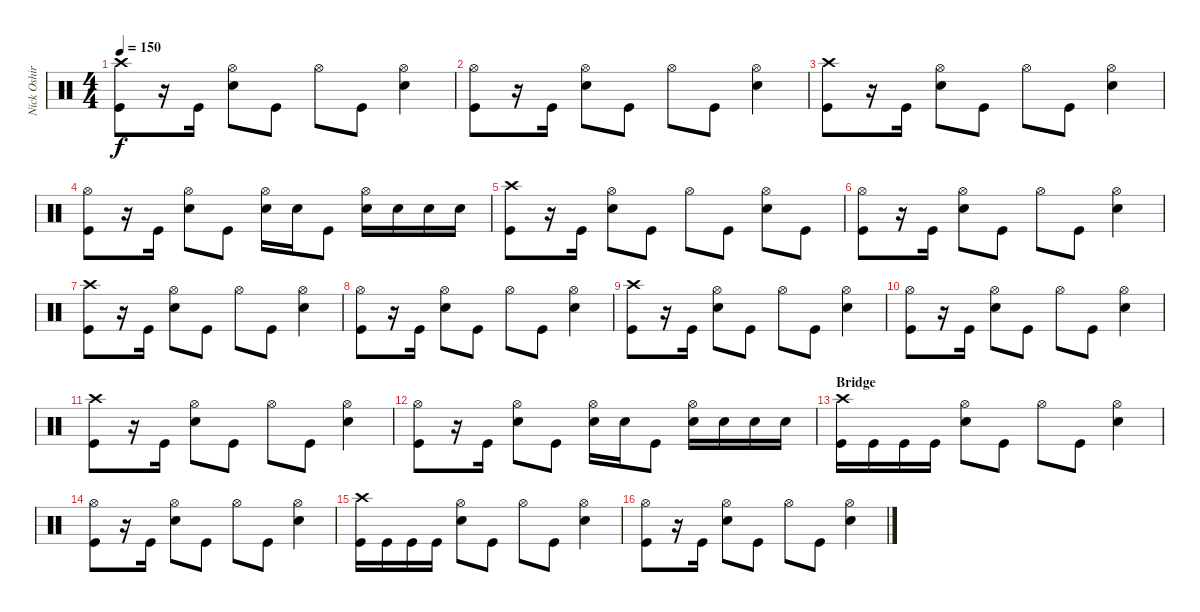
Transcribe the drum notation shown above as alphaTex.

\track ("Nick Oshiro" "Nick Oshir") {instrument percussion}
\staff {score}
\articulation defaults
\ts (4 4)
\tempo 150
\clef neutral
\ks c
("Crash high (hit)" "Kick (hit)").8{dy f} r.16 "Kick (hit)".16 ("Hi-Hat (open)" "Snare (hit) 2").8 "Kick (hit)".8 "Hi-Hat (open)".8 "Kick (hit)".8 ("Hi-Hat (open)" "Snare (hit) 2").4 |
("Hi-Hat (open)" "Kick (hit)").8 r.16 "Kick (hit)".16 ("Hi-Hat (open)" "Snare (hit) 2").8 "Kick (hit)".8 "Hi-Hat (open)".8 "Kick (hit)".8 ("Hi-Hat (open)" "Snare (hit) 2").4 |
("Crash high (hit)" "Kick (hit)").8 r.16 "Kick (hit)".16 ("Hi-Hat (open)" "Snare (hit) 2").8 "Kick (hit)".8 "Hi-Hat (open)".8 "Kick (hit)".8 ("Hi-Hat (open)" "Snare (hit) 2").4 |
("Hi-Hat (open)" "Kick (hit)").8 r.16 "Kick (hit)".16 ("Hi-Hat (open)" "Snare (hit) 2").8 "Kick (hit)".8 ("Hi-Hat (open)" "Snare (hit) 2").16 "Snare (hit) 2".16 "Kick (hit)".8 ("Hi-Hat (open)" "Snare (hit) 2").16 "Snare (hit) 2".16 "Snare (hit) 2".16 "Snare (hit) 2".16 |
("Crash high (hit)" "Kick (hit)").8 r.16 "Kick (hit)".16 ("Hi-Hat (open)" "Snare (hit) 2").8 "Kick (hit)".8 "Hi-Hat (open)".8 "Kick (hit)".8 ("Hi-Hat (open)" "Snare (hit) 2").8 "Kick (hit)".8 |
("Hi-Hat (open)" "Kick (hit)").8 r.16 "Kick (hit)".16 ("Hi-Hat (open)" "Snare (hit) 2").8 "Kick (hit)".8 "Hi-Hat (open)".8 "Kick (hit)".8 ("Hi-Hat (open)" "Snare (hit) 2").4 |
("Crash high (hit)" "Kick (hit)").8 r.16 "Kick (hit)".16 ("Hi-Hat (open)" "Snare (hit) 2").8 "Kick (hit)".8 "Hi-Hat (open)".8 "Kick (hit)".8 ("Hi-Hat (open)" "Snare (hit) 2").4 |
("Hi-Hat (open)" "Kick (hit)").8 r.16 "Kick (hit)".16 ("Hi-Hat (open)" "Snare (hit) 2").8 "Kick (hit)".8 "Hi-Hat (open)".8 "Kick (hit)".8 ("Hi-Hat (open)" "Snare (hit) 2").4 |
("Crash high (hit)" "Kick (hit)").8 r.16 "Kick (hit)".16 ("Hi-Hat (open)" "Snare (hit) 2").8 "Kick (hit)".8 "Hi-Hat (open)".8 "Kick (hit)".8 ("Hi-Hat (open)" "Snare (hit) 2").4 |
("Hi-Hat (open)" "Kick (hit)").8 r.16 "Kick (hit)".16 ("Hi-Hat (open)" "Snare (hit) 2").8 "Kick (hit)".8 "Hi-Hat (open)".8 "Kick (hit)".8 ("Hi-Hat (open)" "Snare (hit) 2").4 |
("Crash high (hit)" "Kick (hit)").8 r.16 "Kick (hit)".16 ("Hi-Hat (open)" "Snare (hit) 2").8 "Kick (hit)".8 "Hi-Hat (open)".8 "Kick (hit)".8 ("Hi-Hat (open)" "Snare (hit) 2").4 |
("Hi-Hat (open)" "Kick (hit)").8 r.16 "Kick (hit)".16 ("Hi-Hat (open)" "Snare (hit) 2").8 "Kick (hit)".8 ("Hi-Hat (open)" "Snare (hit) 2").16 "Snare (hit) 2".16 "Kick (hit)".8 ("Hi-Hat (open)" "Snare (hit) 2").16 "Snare (hit) 2".16 "Snare (hit) 2".16 "Snare (hit) 2".16 |
\section ("" "Bridge")
("Crash high (hit)" "Kick (hit)").16 "Kick (hit)".16 "Kick (hit)".16 "Kick (hit)".16 ("Hi-Hat (open)" "Snare (hit) 2").8 "Kick (hit)".8 "Hi-Hat (open)".8 "Kick (hit)".8 ("Hi-Hat (open)" "Snare (hit) 2").4 |
("Hi-Hat (open)" "Kick (hit)").8 r.16 "Kick (hit)".16 ("Hi-Hat (open)" "Snare (hit) 2").8 "Kick (hit)".8 "Hi-Hat (open)".8 "Kick (hit)".8 ("Hi-Hat (open)" "Snare (hit) 2").4 |
("Crash high (hit)" "Kick (hit)").16 "Kick (hit)".16 "Kick (hit)".16 "Kick (hit)".16 ("Hi-Hat (open)" "Snare (hit) 2").8 "Kick (hit)".8 "Hi-Hat (open)".8 "Kick (hit)".8 ("Hi-Hat (open)" "Snare (hit) 2").4 |
("Hi-Hat (open)" "Kick (hit)").8 r.16 "Kick (hit)".16 ("Hi-Hat (open)" "Snare (hit) 2").8 "Kick (hit)".8 "Hi-Hat (open)".8 "Kick (hit)".8 ("Hi-Hat (open)" "Snare (hit) 2").4
